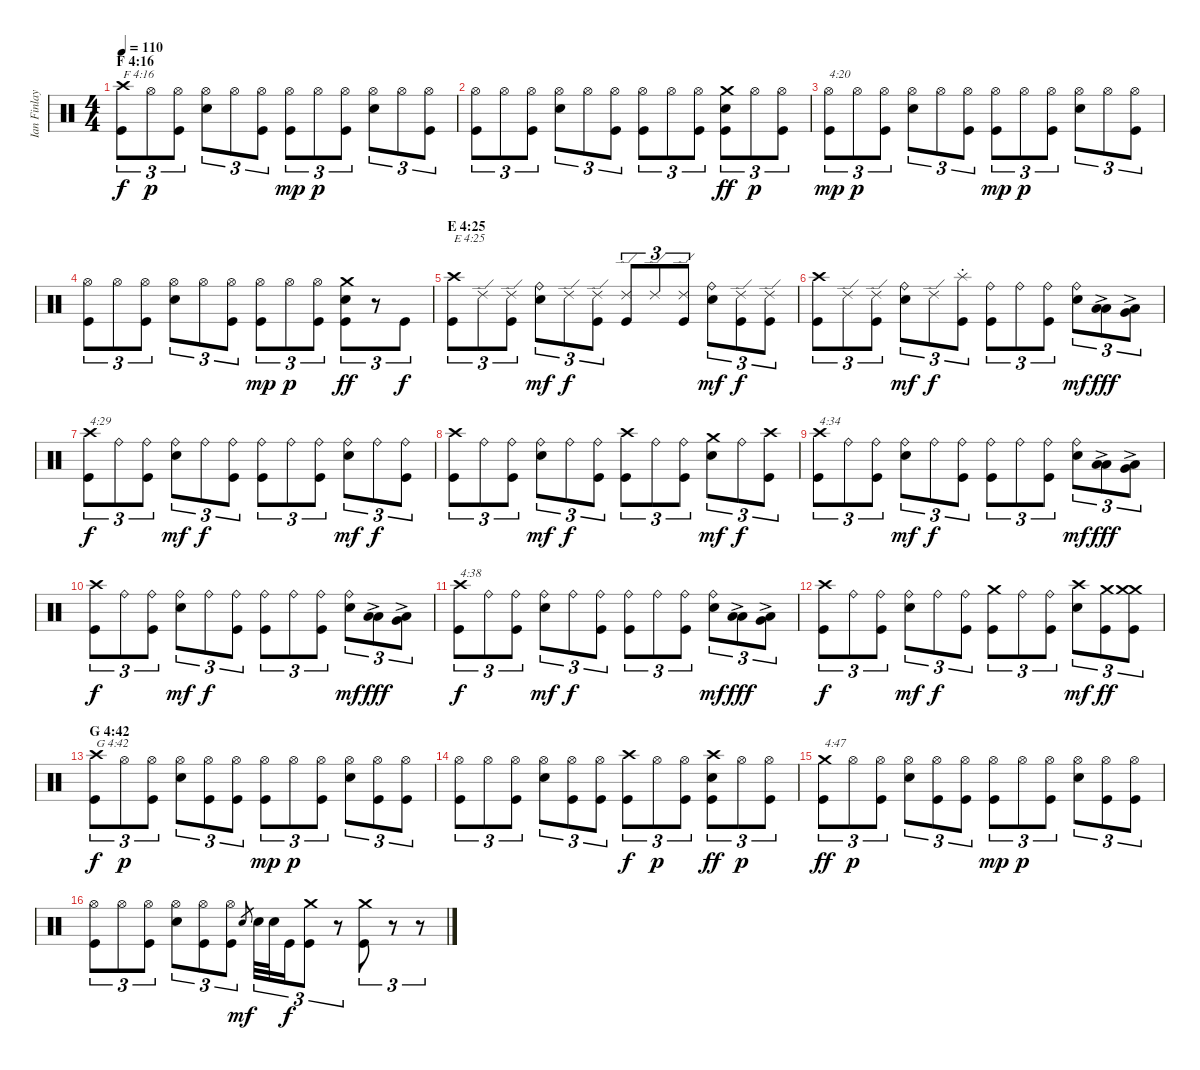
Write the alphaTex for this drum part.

\track ("Ian Finlay" "Ian Finlay") {instrument percussion}
\staff {score}
\articulation defaults
\ts (4 4)
\section ("" "F 4:16")
\tempo 110
\clef neutral
\ks c
("Kick (hit)" "Crash high (hit)").8{tu (3 2) txt "F 4:16" dy f} "Hi-Hat (open)".8{tu (3 2) dy p} ("Kick (hit)" "Hi-Hat (open)").8{tu (3 2)} ("Snare (hit) 2" "Hi-Hat (open)").8{tu (3 2)} "Hi-Hat (open)".8{tu (3 2)} ("Kick (hit)" "Hi-Hat (open)").8{tu (3 2)} ("Kick (hit)" "Hi-Hat (open)").8{tu (3 2) dy mp} "Hi-Hat (open)".8{tu (3 2) dy p} ("Kick (hit)" "Hi-Hat (open)").8{tu (3 2)} ("Snare (hit) 2" "Hi-Hat (open)").8{tu (3 2)} "Hi-Hat (open)".8{tu (3 2)} ("Kick (hit)" "Hi-Hat (open)").8{tu (3 2)} |
("Kick (hit)" "Hi-Hat (open)").8{tu (3 2)} "Hi-Hat (open)".8{tu (3 2)} ("Kick (hit)" "Hi-Hat (open)").8{tu (3 2)} ("Snare (hit) 2" "Hi-Hat (open)").8{tu (3 2)} "Hi-Hat (open)".8{tu (3 2)} ("Kick (hit)" "Hi-Hat (open)").8{tu (3 2)} ("Kick (hit)" "Hi-Hat (open)").8{tu (3 2)} "Hi-Hat (open)".8{tu (3 2)} ("Kick (hit)" "Hi-Hat (open)").8{tu (3 2)} ("Kick (hit)" "Snare (hit) 2" "Crash medium (hit)").8{tu (3 2) dy ff} "Hi-Hat (open)".8{tu (3 2) dy p} ("Kick (hit)" "Hi-Hat (open)").8{tu (3 2)} |
("Kick (hit)" "Hi-Hat (open)").8{tu (3 2) txt "4:20" dy mp} "Hi-Hat (open)".8{tu (3 2) dy p} ("Kick (hit)" "Hi-Hat (open)").8{tu (3 2)} ("Snare (hit) 2" "Hi-Hat (open)").8{tu (3 2)} "Hi-Hat (open)".8{tu (3 2)} ("Kick (hit)" "Hi-Hat (open)").8{tu (3 2)} ("Kick (hit)" "Hi-Hat (open)").8{tu (3 2) dy mp} "Hi-Hat (open)".8{tu (3 2) dy p} ("Kick (hit)" "Hi-Hat (open)").8{tu (3 2)} ("Snare (hit) 2" "Hi-Hat (open)").8{tu (3 2)} "Hi-Hat (open)".8{tu (3 2)} ("Kick (hit)" "Hi-Hat (open)").8{tu (3 2)} |
("Kick (hit)" "Hi-Hat (open)").8{tu (3 2)} "Hi-Hat (open)".8{tu (3 2)} ("Kick (hit)" "Hi-Hat (open)").8{tu (3 2)} ("Snare (hit) 2" "Hi-Hat (open)").8{tu (3 2)} "Hi-Hat (open)".8{tu (3 2)} ("Kick (hit)" "Hi-Hat (open)").8{tu (3 2)} ("Kick (hit)" "Hi-Hat (open)").8{tu (3 2) dy mp} "Hi-Hat (open)".8{tu (3 2) dy p} ("Kick (hit)" "Hi-Hat (open)").8{tu (3 2)} ("Kick (hit)" "Snare (hit) 2" "Crash medium (hit)").8{tu (3 2) dy ff} r.8{tu (3 2)} "Kick (hit)".8{tu (3 2) dy f} |
\section ("" "E 4:25")
("Kick (hit)" "Crash high (hit)").8{tu (3 2) txt "E 4:25"} "Ride (edge) 2".8{tu (3 2)} ("Kick (hit)" "Ride (edge) 2").8{tu (3 2)} ("Snare (hit) 2" "Ride (bell)").8{tu (3 2) dy mf} "Ride (edge) 2".8{tu (3 2) dy f} ("Kick (hit)" "Ride (edge) 2").8{tu (3 2)} ("Kick (hit)" "Ride (edge) 2").8{tu (3 2)} "Ride (edge) 2".8{tu (3 2)} ("Kick (hit)" "Ride (edge) 2").8{tu (3 2)} ("Snare (hit) 2" "Ride (bell)").8{tu (3 2) dy mf} ("Kick (hit)" "Ride (edge) 2").8{tu (3 2) dy f} ("Kick (hit)" "Ride (edge) 2").8{tu (3 2)} |
("Kick (hit)" "Crash high (hit)").8{tu (3 2)} "Ride (edge) 2".8{tu (3 2)} ("Kick (hit)" "Ride (edge) 2").8{tu (3 2)} ("Snare (hit) 2" "Ride (bell)").8{tu (3 2) dy mf} "Ride (edge) 2".8{tu (3 2) dy f} ("Kick (hit)" "Splash (choke)").8{tu (3 2)} ("Kick (hit)" "Ride (bell)").8{tu (3 2)} "Ride (bell)".8{tu (3 2)} ("Kick (hit)" "Ride (bell)").8{tu (3 2)} ("Snare (hit) 2" "Ride (bell)").8{tu (3 2) dy mf} ("Low Tom (hit)"{ac} "Low Tom (hit)"{ac}).8{tu (3 2) dy fff} ("Low Tom (hit)"{ac} "Very Low Tom (hit)"{ac}).8{tu (3 2)} |
("Kick (hit)" "Crash high (hit)").8{tu (3 2) txt "4:29" dy f} "Ride (bell)".8{tu (3 2)} ("Kick (hit)" "Ride (bell)").8{tu (3 2)} ("Snare (hit) 2" "Ride (bell)").8{tu (3 2) dy mf} "Ride (bell)".8{tu (3 2) dy f} ("Kick (hit)" "Ride (bell)").8{tu (3 2)} ("Kick (hit)" "Ride (bell)").8{tu (3 2)} "Ride (bell)".8{tu (3 2)} ("Kick (hit)" "Ride (bell)").8{tu (3 2)} ("Snare (hit) 2" "Ride (bell)").8{tu (3 2) dy mf} "Ride (bell)".8{tu (3 2) dy f} ("Kick (hit)" "Ride (bell)").8{tu (3 2)} |
("Kick (hit)" "Crash high (hit)").8{tu (3 2)} "Ride (bell)".8{tu (3 2)} ("Kick (hit)" "Ride (bell)").8{tu (3 2)} ("Snare (hit) 2" "Ride (bell)").8{tu (3 2) dy mf} "Ride (bell)".8{tu (3 2) dy f} ("Kick (hit)" "Ride (bell)").8{tu (3 2)} ("Kick (hit)" "Crash high (hit)").8{tu (3 2)} "Ride (bell)".8{tu (3 2)} ("Kick (hit)" "Ride (bell)").8{tu (3 2)} ("Snare (hit) 2" "Crash medium (hit)").8{tu (3 2) dy mf} "Ride (bell)".8{tu (3 2) dy f} ("Kick (hit)" "Crash high (hit)").8{tu (3 2)} |
("Kick (hit)" "Crash high (hit)").8{tu (3 2) txt "4:34"} "Ride (bell)".8{tu (3 2)} ("Kick (hit)" "Ride (bell)").8{tu (3 2)} ("Snare (hit) 2" "Ride (bell)").8{tu (3 2) dy mf} "Ride (bell)".8{tu (3 2) dy f} ("Kick (hit)" "Ride (bell)").8{tu (3 2)} ("Kick (hit)" "Ride (bell)").8{tu (3 2)} "Ride (bell)".8{tu (3 2)} ("Kick (hit)" "Ride (bell)").8{tu (3 2)} ("Snare (hit) 2" "Ride (bell)").8{tu (3 2) dy mf} ("Low Tom (hit)"{ac} "Low Tom (hit)"{ac}).8{tu (3 2) dy fff} ("Low Tom (hit)"{ac} "Very Low Tom (hit)"{ac}).8{tu (3 2)} |
("Kick (hit)" "Crash high (hit)").8{tu (3 2) dy f} "Ride (bell)".8{tu (3 2)} ("Kick (hit)" "Ride (bell)").8{tu (3 2)} ("Snare (hit) 2" "Ride (bell)").8{tu (3 2) dy mf} "Ride (bell)".8{tu (3 2) dy f} ("Kick (hit)" "Ride (bell)").8{tu (3 2)} ("Kick (hit)" "Ride (bell)").8{tu (3 2)} "Ride (bell)".8{tu (3 2)} ("Kick (hit)" "Ride (bell)").8{tu (3 2)} ("Snare (hit) 2" "Ride (bell)").8{tu (3 2) dy mf} ("Low Tom (hit)"{ac} "Low Tom (hit)"{ac}).8{tu (3 2) dy fff} ("Low Tom (hit)"{ac} "Very Low Tom (hit)"{ac}).8{tu (3 2)} |
("Kick (hit)" "Crash high (hit)").8{tu (3 2) txt "4:38" dy f} "Ride (bell)".8{tu (3 2)} ("Kick (hit)" "Ride (bell)").8{tu (3 2)} ("Snare (hit) 2" "Ride (bell)").8{tu (3 2) dy mf} "Ride (bell)".8{tu (3 2) dy f} ("Kick (hit)" "Ride (bell)").8{tu (3 2)} ("Kick (hit)" "Ride (bell)").8{tu (3 2)} "Ride (bell)".8{tu (3 2)} ("Kick (hit)" "Ride (bell)").8{tu (3 2)} ("Snare (hit) 2" "Ride (bell)").8{tu (3 2) dy mf} ("Low Tom (hit)"{ac} "Low Tom (hit)"{ac}).8{tu (3 2) dy fff} ("Low Tom (hit)"{ac} "Very Low Tom (hit)"{ac}).8{tu (3 2)} |
("Kick (hit)" "Crash high (hit)").8{tu (3 2) dy f} "Ride (bell)".8{tu (3 2)} ("Kick (hit)" "Ride (bell)").8{tu (3 2)} ("Snare (hit) 2" "Ride (bell)").8{tu (3 2) dy mf} "Ride (bell)".8{tu (3 2) dy f} ("Kick (hit)" "Ride (bell)").8{tu (3 2)} ("Kick (hit)" "Crash medium (hit)").8{tu (3 2)} "Ride (bell)".8{tu (3 2)} ("Kick (hit)" "Ride (bell)").8{tu (3 2)} ("Snare (hit) 2" "Crash high (hit)").8{tu (3 2) dy mf} ("Kick (hit)" "Crash medium (hit)").8{tu (3 2) dy ff} ("Kick (hit)" "Crash medium (hit)" "Crash medium (hit)").8{tu (3 2)} |
\section ("" "G 4:42")
("Kick (hit)" "Crash high (hit)").8{tu (3 2) txt "G 4:42" dy f} "Hi-Hat (open)".8{tu (3 2) dy p} ("Kick (hit)" "Hi-Hat (open)").8{tu (3 2)} ("Snare (hit) 2" "Hi-Hat (open)").8{tu (3 2)} ("Kick (hit)" "Hi-Hat (open)").8{tu (3 2)} ("Kick (hit)" "Hi-Hat (open)").8{tu (3 2)} ("Kick (hit)" "Hi-Hat (open)").8{tu (3 2) dy mp} "Hi-Hat (open)".8{tu (3 2) dy p} ("Kick (hit)" "Hi-Hat (open)").8{tu (3 2)} ("Snare (hit) 2" "Hi-Hat (open)").8{tu (3 2)} ("Kick (hit)" "Hi-Hat (open)").8{tu (3 2)} ("Kick (hit)" "Hi-Hat (open)").8{tu (3 2)} |
("Kick (hit)" "Hi-Hat (open)").8{tu (3 2)} "Hi-Hat (open)".8{tu (3 2)} ("Kick (hit)" "Hi-Hat (open)").8{tu (3 2)} ("Snare (hit) 2" "Hi-Hat (open)").8{tu (3 2)} ("Kick (hit)" "Hi-Hat (open)").8{tu (3 2)} ("Kick (hit)" "Hi-Hat (open)").8{tu (3 2)} ("Kick (hit)" "Crash high (hit)").8{tu (3 2) dy f} "Hi-Hat (open)".8{tu (3 2) dy p} ("Kick (hit)" "Hi-Hat (open)").8{tu (3 2)} ("Kick (hit)" "Snare (hit) 2" "Crash high (hit)").8{tu (3 2) dy ff} "Hi-Hat (open)".8{tu (3 2) dy p} ("Kick (hit)" "Hi-Hat (open)").8{tu (3 2)} |
("Kick (hit)" "Crash medium (hit)").8{tu (3 2) txt "4:47" dy ff} "Hi-Hat (open)".8{tu (3 2) dy p} ("Kick (hit)" "Hi-Hat (open)").8{tu (3 2)} ("Snare (hit) 2" "Hi-Hat (open)").8{tu (3 2)} ("Kick (hit)" "Hi-Hat (open)").8{tu (3 2)} ("Kick (hit)" "Hi-Hat (open)").8{tu (3 2)} ("Kick (hit)" "Hi-Hat (open)").8{tu (3 2) dy mp} "Hi-Hat (open)".8{tu (3 2) dy p} ("Kick (hit)" "Hi-Hat (open)").8{tu (3 2)} ("Snare (hit) 2" "Hi-Hat (open)").8{tu (3 2)} ("Kick (hit)" "Hi-Hat (open)").8{tu (3 2)} ("Kick (hit)" "Hi-Hat (open)").8{tu (3 2)} |
("Kick (hit)" "Hi-Hat (open)").8{tu (3 2)} "Hi-Hat (open)".8{tu (3 2)} ("Kick (hit)" "Hi-Hat (open)").8{tu (3 2)} ("Snare (hit) 2" "Hi-Hat (open)").8{tu (3 2)} ("Kick (hit)" "Hi-Hat (open)").8{tu (3 2)} ("Kick (hit)" "Hi-Hat (open)").8{tu (3 2)} "Snare (hit) 2".8{gr dy mf} "Snare (hit) 2".32{tu (3 2)} "Snare (hit) 2".32{tu (3 2)} "Kick (hit)".16{tu (3 2) dy f} ("Kick (hit)" "Crash medium (hit)").8{tu (3 2)} r.8{tu (3 2)} ("Kick (hit)" "Crash medium (hit)").8{tu (3 2)} r.8{tu (3 2)} r.8{tu (3 2)}
